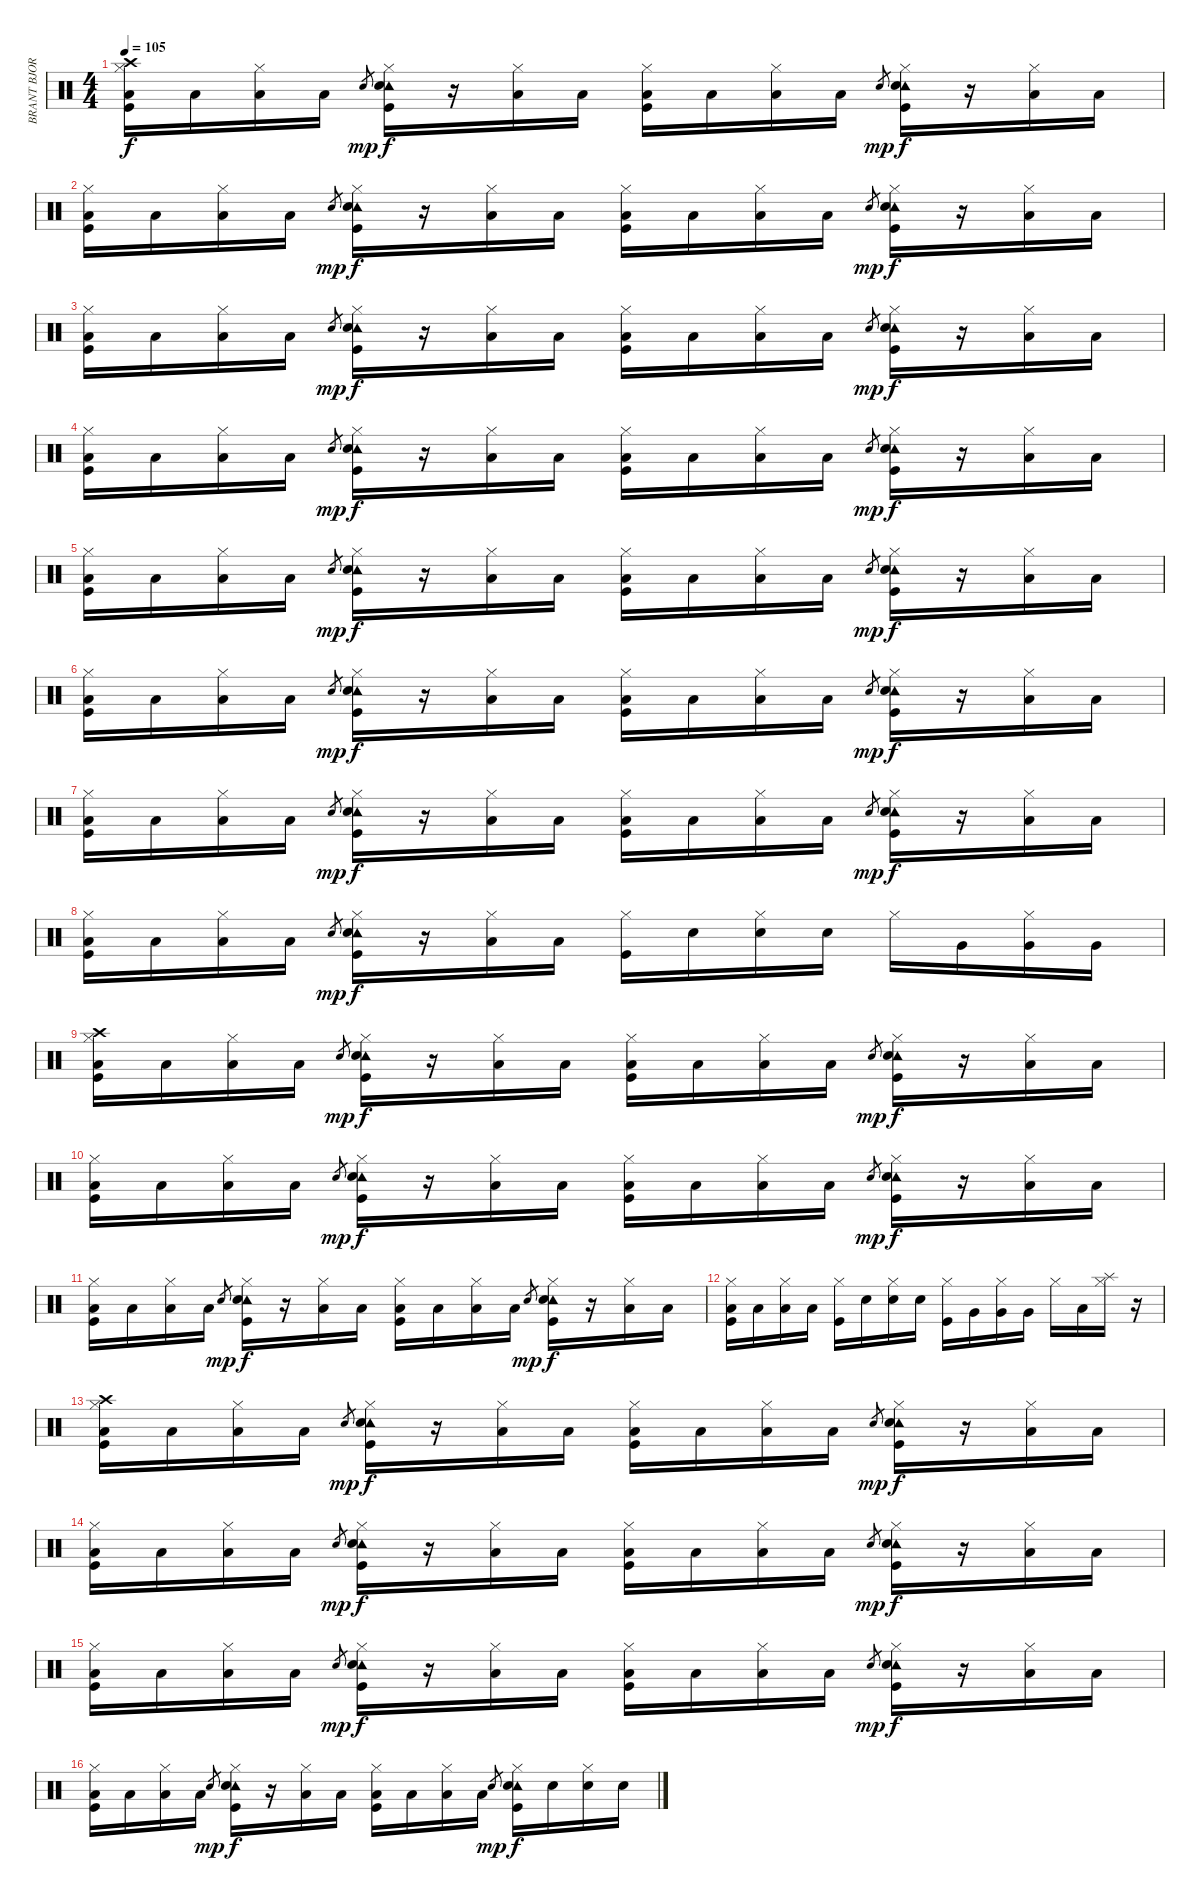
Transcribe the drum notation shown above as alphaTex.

\track ("BRANT BJORK -  DRUMS" "BRANT BJOR") {instrument percussion}
\staff {score}
\articulation defaults
\ts (4 4)
\tempo 105
\clef neutral
\ks c
("Crash high (hit)" "Hi-Hat (closed)" "Low Floor Tom (hit)" "Kick (hit)").16{dy f} "Low Floor Tom (hit)".16 ("Hi-Hat (closed)" "Low Floor Tom (hit)").16 "Low Floor Tom (hit)".16 "Snare (hit) 2".8{gr dy mp} ("Tambourine (hit)" "Hi-Hat (closed)" "Snare (hit) 2" "Kick (hit)").16{dy f} r.16 ("Hi-Hat (closed)" "Low Floor Tom (hit)").16 "Low Floor Tom (hit)".16 ("Hi-Hat (closed)" "Low Floor Tom (hit)" "Kick (hit)").16 "Low Floor Tom (hit)".16 ("Hi-Hat (closed)" "Low Floor Tom (hit)").16 "Low Floor Tom (hit)".16 "Snare (hit) 2".8{gr dy mp} ("Tambourine (hit)" "Hi-Hat (closed)" "Snare (hit) 2" "Kick (hit)").16{dy f} r.16 ("Hi-Hat (closed)" "Low Floor Tom (hit)").16 "Low Floor Tom (hit)".16 |
("Hi-Hat (closed)" "Low Floor Tom (hit)" "Kick (hit)").16 "Low Floor Tom (hit)".16 ("Hi-Hat (closed)" "Low Floor Tom (hit)").16 "Low Floor Tom (hit)".16 "Snare (hit) 2".8{gr dy mp} ("Tambourine (hit)" "Hi-Hat (closed)" "Snare (hit) 2" "Kick (hit)").16{dy f} r.16 ("Hi-Hat (closed)" "Low Floor Tom (hit)").16 "Low Floor Tom (hit)".16 ("Hi-Hat (closed)" "Low Floor Tom (hit)" "Kick (hit)").16 "Low Floor Tom (hit)".16 ("Hi-Hat (closed)" "Low Floor Tom (hit)").16 "Low Floor Tom (hit)".16 "Snare (hit) 2".8{gr dy mp} ("Tambourine (hit)" "Hi-Hat (closed)" "Snare (hit) 2" "Kick (hit)").16{dy f} r.16 ("Hi-Hat (closed)" "Low Floor Tom (hit)").16 "Low Floor Tom (hit)".16 |
("Hi-Hat (closed)" "Low Floor Tom (hit)" "Kick (hit)").16 "Low Floor Tom (hit)".16 ("Hi-Hat (closed)" "Low Floor Tom (hit)").16 "Low Floor Tom (hit)".16 "Snare (hit) 2".8{gr dy mp} ("Tambourine (hit)" "Hi-Hat (closed)" "Snare (hit) 2" "Kick (hit)").16{dy f} r.16 ("Hi-Hat (closed)" "Low Floor Tom (hit)").16 "Low Floor Tom (hit)".16 ("Hi-Hat (closed)" "Low Floor Tom (hit)" "Kick (hit)").16 "Low Floor Tom (hit)".16 ("Hi-Hat (closed)" "Low Floor Tom (hit)").16 "Low Floor Tom (hit)".16 "Snare (hit) 2".8{gr dy mp} ("Tambourine (hit)" "Hi-Hat (closed)" "Snare (hit) 2" "Kick (hit)").16{dy f} r.16 ("Hi-Hat (closed)" "Low Floor Tom (hit)").16 "Low Floor Tom (hit)".16 |
("Hi-Hat (closed)" "Low Floor Tom (hit)" "Kick (hit)").16 "Low Floor Tom (hit)".16 ("Hi-Hat (closed)" "Low Floor Tom (hit)").16 "Low Floor Tom (hit)".16 "Snare (hit) 2".8{gr dy mp} ("Tambourine (hit)" "Hi-Hat (closed)" "Snare (hit) 2" "Kick (hit)").16{dy f} r.16 ("Hi-Hat (closed)" "Low Floor Tom (hit)").16 "Low Floor Tom (hit)".16 ("Hi-Hat (closed)" "Low Floor Tom (hit)" "Kick (hit)").16 "Low Floor Tom (hit)".16 ("Hi-Hat (closed)" "Low Floor Tom (hit)").16 "Low Floor Tom (hit)".16 "Snare (hit) 2".8{gr dy mp} ("Tambourine (hit)" "Hi-Hat (closed)" "Snare (hit) 2" "Kick (hit)").16{dy f} r.16 ("Hi-Hat (closed)" "Low Floor Tom (hit)").16 "Low Floor Tom (hit)".16 |
("Hi-Hat (closed)" "Low Floor Tom (hit)" "Kick (hit)").16 "Low Floor Tom (hit)".16 ("Hi-Hat (closed)" "Low Floor Tom (hit)").16 "Low Floor Tom (hit)".16 "Snare (hit) 2".8{gr dy mp} ("Tambourine (hit)" "Hi-Hat (closed)" "Snare (hit) 2" "Kick (hit)").16{dy f} r.16 ("Hi-Hat (closed)" "Low Floor Tom (hit)").16 "Low Floor Tom (hit)".16 ("Hi-Hat (closed)" "Low Floor Tom (hit)" "Kick (hit)").16 "Low Floor Tom (hit)".16 ("Hi-Hat (closed)" "Low Floor Tom (hit)").16 "Low Floor Tom (hit)".16 "Snare (hit) 2".8{gr dy mp} ("Tambourine (hit)" "Hi-Hat (closed)" "Snare (hit) 2" "Kick (hit)").16{dy f} r.16 ("Hi-Hat (closed)" "Low Floor Tom (hit)").16 "Low Floor Tom (hit)".16 |
("Hi-Hat (closed)" "Low Floor Tom (hit)" "Kick (hit)").16 "Low Floor Tom (hit)".16 ("Hi-Hat (closed)" "Low Floor Tom (hit)").16 "Low Floor Tom (hit)".16 "Snare (hit) 2".8{gr dy mp} ("Tambourine (hit)" "Hi-Hat (closed)" "Snare (hit) 2" "Kick (hit)").16{dy f} r.16 ("Hi-Hat (closed)" "Low Floor Tom (hit)").16 "Low Floor Tom (hit)".16 ("Hi-Hat (closed)" "Low Floor Tom (hit)" "Kick (hit)").16 "Low Floor Tom (hit)".16 ("Hi-Hat (closed)" "Low Floor Tom (hit)").16 "Low Floor Tom (hit)".16 "Snare (hit) 2".8{gr dy mp} ("Tambourine (hit)" "Hi-Hat (closed)" "Snare (hit) 2" "Kick (hit)").16{dy f} r.16 ("Hi-Hat (closed)" "Low Floor Tom (hit)").16 "Low Floor Tom (hit)".16 |
("Hi-Hat (closed)" "Low Floor Tom (hit)" "Kick (hit)").16 "Low Floor Tom (hit)".16 ("Hi-Hat (closed)" "Low Floor Tom (hit)").16 "Low Floor Tom (hit)".16 "Snare (hit) 2".8{gr dy mp} ("Tambourine (hit)" "Hi-Hat (closed)" "Snare (hit) 2" "Kick (hit)").16{dy f} r.16 ("Hi-Hat (closed)" "Low Floor Tom (hit)").16 "Low Floor Tom (hit)".16 ("Hi-Hat (closed)" "Low Floor Tom (hit)" "Kick (hit)").16 "Low Floor Tom (hit)".16 ("Hi-Hat (closed)" "Low Floor Tom (hit)").16 "Low Floor Tom (hit)".16 "Snare (hit) 2".8{gr dy mp} ("Tambourine (hit)" "Hi-Hat (closed)" "Snare (hit) 2" "Kick (hit)").16{dy f} r.16 ("Hi-Hat (closed)" "Low Floor Tom (hit)").16 "Low Floor Tom (hit)".16 |
("Hi-Hat (closed)" "Low Floor Tom (hit)" "Kick (hit)").16 "Low Floor Tom (hit)".16 ("Hi-Hat (closed)" "Low Floor Tom (hit)").16 "Low Floor Tom (hit)".16 "Snare (hit) 2".8{gr dy mp} ("Tambourine (hit)" "Hi-Hat (closed)" "Snare (hit) 2" "Kick (hit)").16{dy f} r.16 ("Hi-Hat (closed)" "Low Floor Tom (hit)").16 "Low Floor Tom (hit)".16 ("Hi-Hat (closed)" "Kick (hit)").16 "Snare (hit) 2".16 ("Hi-Hat (closed)" "Snare (hit) 2").16 "Snare (hit) 2".16 "Hi-Hat (closed)".16 "Very Low Tom (hit)".16 ("Hi-Hat (closed)" "Very Low Tom (hit)").16 "Very Low Tom (hit)".16 |
("Crash high (hit)" "Hi-Hat (closed)" "Low Floor Tom (hit)" "Kick (hit)").16 "Low Floor Tom (hit)".16 ("Hi-Hat (closed)" "Low Floor Tom (hit)").16 "Low Floor Tom (hit)".16 "Snare (hit) 2".8{gr dy mp} ("Tambourine (hit)" "Hi-Hat (closed)" "Snare (hit) 2" "Kick (hit)").16{dy f} r.16 ("Hi-Hat (closed)" "Low Floor Tom (hit)").16 "Low Floor Tom (hit)".16 ("Hi-Hat (closed)" "Low Floor Tom (hit)" "Kick (hit)").16 "Low Floor Tom (hit)".16 ("Hi-Hat (closed)" "Low Floor Tom (hit)").16 "Low Floor Tom (hit)".16 "Snare (hit) 2".8{gr dy mp} ("Tambourine (hit)" "Hi-Hat (closed)" "Snare (hit) 2" "Kick (hit)").16{dy f} r.16 ("Hi-Hat (closed)" "Low Floor Tom (hit)").16 "Low Floor Tom (hit)".16 |
("Hi-Hat (closed)" "Low Floor Tom (hit)" "Kick (hit)").16 "Low Floor Tom (hit)".16 ("Hi-Hat (closed)" "Low Floor Tom (hit)").16 "Low Floor Tom (hit)".16 "Snare (hit) 2".8{gr dy mp} ("Tambourine (hit)" "Hi-Hat (closed)" "Snare (hit) 2" "Kick (hit)").16{dy f} r.16 ("Hi-Hat (closed)" "Low Floor Tom (hit)").16 "Low Floor Tom (hit)".16 ("Hi-Hat (closed)" "Low Floor Tom (hit)" "Kick (hit)").16 "Low Floor Tom (hit)".16 ("Hi-Hat (closed)" "Low Floor Tom (hit)").16 "Low Floor Tom (hit)".16 "Snare (hit) 2".8{gr dy mp} ("Tambourine (hit)" "Hi-Hat (closed)" "Snare (hit) 2" "Kick (hit)").16{dy f} r.16 ("Hi-Hat (closed)" "Low Floor Tom (hit)").16 "Low Floor Tom (hit)".16 |
("Hi-Hat (closed)" "Low Floor Tom (hit)" "Kick (hit)").16 "Low Floor Tom (hit)".16 ("Hi-Hat (closed)" "Low Floor Tom (hit)").16 "Low Floor Tom (hit)".16 "Snare (hit) 2".8{gr dy mp} ("Tambourine (hit)" "Hi-Hat (closed)" "Snare (hit) 2" "Kick (hit)").16{dy f} r.16 ("Hi-Hat (closed)" "Low Floor Tom (hit)").16 "Low Floor Tom (hit)".16 ("Hi-Hat (closed)" "Low Floor Tom (hit)" "Kick (hit)").16 "Low Floor Tom (hit)".16 ("Hi-Hat (closed)" "Low Floor Tom (hit)").16 "Low Floor Tom (hit)".16 "Snare (hit) 2".8{gr dy mp} ("Tambourine (hit)" "Hi-Hat (closed)" "Snare (hit) 2" "Kick (hit)").16{dy f} r.16 ("Hi-Hat (closed)" "Low Floor Tom (hit)").16 "Low Floor Tom (hit)".16 |
("Hi-Hat (closed)" "Low Floor Tom (hit)" "Kick (hit)").16 "Low Floor Tom (hit)".16 ("Hi-Hat (closed)" "Low Floor Tom (hit)").16 "Low Floor Tom (hit)".16 ("Hi-Hat (closed)" "Kick (hit)").16 "Snare (hit) 2".16 ("Hi-Hat (closed)" "Snare (hit) 2").16 "Snare (hit) 2".16 ("Hi-Hat (closed)" "Kick (hit)").16 "Very Low Tom (hit)".16 ("Hi-Hat (closed)" "Very Low Tom (hit)").16 "Very Low Tom (hit)".16 "Hi-Hat (closed)".16 "Low Floor Tom (hit)".16 ("Hi-Hat (closed)" "Splash (hit)").16 r.16 |
("Crash high (hit)" "Hi-Hat (closed)" "Low Floor Tom (hit)" "Kick (hit)").16 "Low Floor Tom (hit)".16 ("Hi-Hat (closed)" "Low Floor Tom (hit)").16 "Low Floor Tom (hit)".16 "Snare (hit) 2".8{gr dy mp} ("Tambourine (hit)" "Hi-Hat (closed)" "Snare (hit) 2" "Kick (hit)").16{dy f} r.16 ("Hi-Hat (closed)" "Low Floor Tom (hit)").16 "Low Floor Tom (hit)".16 ("Hi-Hat (closed)" "Low Floor Tom (hit)" "Kick (hit)").16 "Low Floor Tom (hit)".16 ("Hi-Hat (closed)" "Low Floor Tom (hit)").16 "Low Floor Tom (hit)".16 "Snare (hit) 2".8{gr dy mp} ("Tambourine (hit)" "Hi-Hat (closed)" "Snare (hit) 2" "Kick (hit)").16{dy f} r.16 ("Hi-Hat (closed)" "Low Floor Tom (hit)").16 "Low Floor Tom (hit)".16 |
("Hi-Hat (closed)" "Low Floor Tom (hit)" "Kick (hit)").16 "Low Floor Tom (hit)".16 ("Hi-Hat (closed)" "Low Floor Tom (hit)").16 "Low Floor Tom (hit)".16 "Snare (hit) 2".8{gr dy mp} ("Tambourine (hit)" "Hi-Hat (closed)" "Snare (hit) 2" "Kick (hit)").16{dy f} r.16 ("Hi-Hat (closed)" "Low Floor Tom (hit)").16 "Low Floor Tom (hit)".16 ("Hi-Hat (closed)" "Low Floor Tom (hit)" "Kick (hit)").16 "Low Floor Tom (hit)".16 ("Hi-Hat (closed)" "Low Floor Tom (hit)").16 "Low Floor Tom (hit)".16 "Snare (hit) 2".8{gr dy mp} ("Tambourine (hit)" "Hi-Hat (closed)" "Snare (hit) 2" "Kick (hit)").16{dy f} r.16 ("Hi-Hat (closed)" "Low Floor Tom (hit)").16 "Low Floor Tom (hit)".16 |
("Hi-Hat (closed)" "Low Floor Tom (hit)" "Kick (hit)").16 "Low Floor Tom (hit)".16 ("Hi-Hat (closed)" "Low Floor Tom (hit)").16 "Low Floor Tom (hit)".16 "Snare (hit) 2".8{gr dy mp} ("Tambourine (hit)" "Hi-Hat (closed)" "Snare (hit) 2" "Kick (hit)").16{dy f} r.16 ("Hi-Hat (closed)" "Low Floor Tom (hit)").16 "Low Floor Tom (hit)".16 ("Hi-Hat (closed)" "Low Floor Tom (hit)" "Kick (hit)").16 "Low Floor Tom (hit)".16 ("Hi-Hat (closed)" "Low Floor Tom (hit)").16 "Low Floor Tom (hit)".16 "Snare (hit) 2".8{gr dy mp} ("Tambourine (hit)" "Hi-Hat (closed)" "Snare (hit) 2" "Kick (hit)").16{dy f} r.16 ("Hi-Hat (closed)" "Low Floor Tom (hit)").16 "Low Floor Tom (hit)".16 |
("Hi-Hat (closed)" "Low Floor Tom (hit)" "Kick (hit)").16 "Low Floor Tom (hit)".16 ("Hi-Hat (closed)" "Low Floor Tom (hit)").16 "Low Floor Tom (hit)".16 "Snare (hit) 2".8{gr dy mp} ("Tambourine (hit)" "Hi-Hat (closed)" "Snare (hit) 2" "Kick (hit)").16{dy f} r.16 ("Hi-Hat (closed)" "Low Floor Tom (hit)").16 "Low Floor Tom (hit)".16 ("Hi-Hat (closed)" "Low Floor Tom (hit)" "Kick (hit)").16 "Low Floor Tom (hit)".16 ("Hi-Hat (closed)" "Low Floor Tom (hit)").16 "Low Floor Tom (hit)".16 "Snare (hit) 2".8{gr dy mp} ("Tambourine (hit)" "Hi-Hat (closed)" "Snare (hit) 2" "Kick (hit)").16{dy f} "Snare (hit) 2".16 ("Hi-Hat (closed)" "Snare (hit) 2").16 "Snare (hit) 2".16
